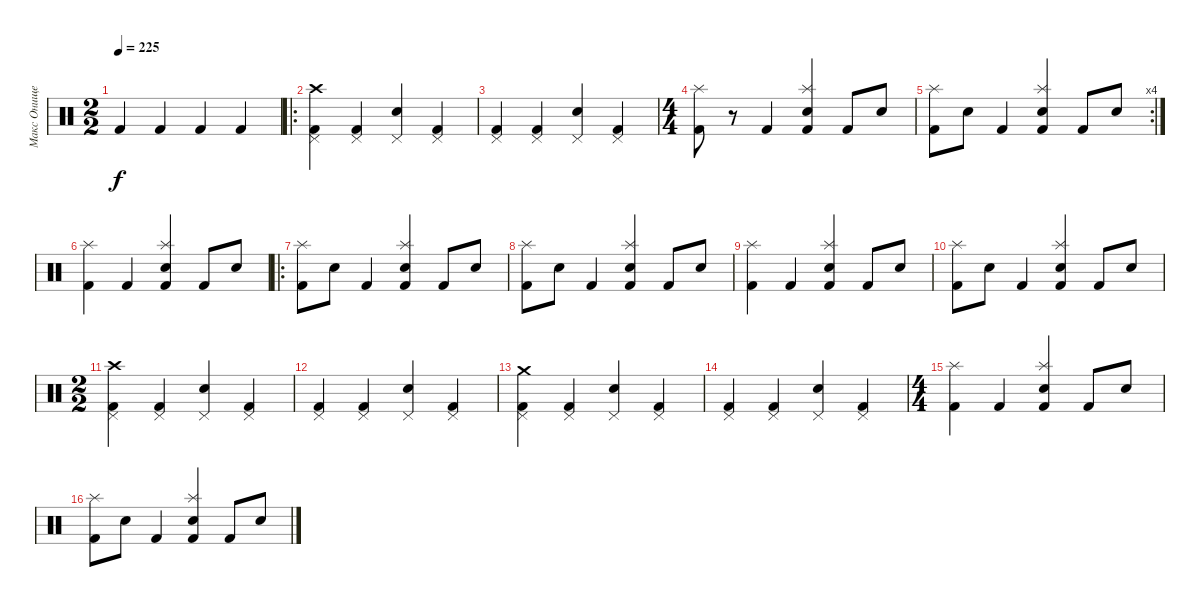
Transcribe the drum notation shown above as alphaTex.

\track ("Макс Онищенко" "Макс Онище") {instrument percussion}
\staff {score}
\articulation defaults
\ts (2 2)
\tempo 225
\clef neutral
\ks c "Kick (hit) 2".4{dy f} "Kick (hit) 2".4 "Kick (hit) 2".4 "Kick (hit) 2".4
|
\ro
("Pedal Hi-Hat (hit)" "Kick (hit) 2" "Crash high (hit)").4 ("Pedal Hi-Hat (hit)" "Kick (hit) 2").4 ("Pedal Hi-Hat (hit)" "Snare (hit) 2").4 ("Pedal Hi-Hat (hit)" "Kick (hit) 2").4 |
("Pedal Hi-Hat (hit)" "Kick (hit) 2").4 ("Pedal Hi-Hat (hit)" "Kick (hit) 2").4 ("Pedal Hi-Hat (hit)" "Snare (hit) 2").4 ("Pedal Hi-Hat (hit)" "Kick (hit) 2").4 |
\ts (4 4)
("Splash (hit)" "Kick (hit) 2").8 r.8 "Kick (hit) 2".4 ("Splash (hit)" "Kick (hit) 2" "Electric Snare (hit)").4 "Kick (hit) 2".8 "Electric Snare (hit)".8 |
\rc 4
("Splash (hit)" "Kick (hit) 2").8 "Electric Snare (hit)".8 "Kick (hit) 2".4 ("Splash (hit)" "Kick (hit) 2" "Electric Snare (hit)").4 "Kick (hit) 2".8 "Electric Snare (hit)".8 |
("Splash (hit)" "Kick (hit) 2").4 "Kick (hit) 2".4 ("Splash (hit)" "Kick (hit) 2" "Electric Snare (hit)").4 "Kick (hit) 2".8 "Electric Snare (hit)".8 |
\ro
("Splash (hit)" "Kick (hit) 2").8 "Electric Snare (hit)".8 "Kick (hit) 2".4 ("Splash (hit)" "Kick (hit) 2" "Electric Snare (hit)").4 "Kick (hit) 2".8 "Electric Snare (hit)".8 |
("Splash (hit)" "Kick (hit) 2").8 "Electric Snare (hit)".8 "Kick (hit) 2".4 ("Splash (hit)" "Kick (hit) 2" "Electric Snare (hit)").4 "Kick (hit) 2".8 "Electric Snare (hit)".8 |
("Splash (hit)" "Kick (hit) 2").4 "Kick (hit) 2".4 ("Splash (hit)" "Kick (hit) 2" "Electric Snare (hit)").4 "Kick (hit) 2".8 "Electric Snare (hit)".8 |
("Splash (hit)" "Kick (hit) 2").8 "Electric Snare (hit)".8 "Kick (hit) 2".4 ("Splash (hit)" "Kick (hit) 2" "Electric Snare (hit)").4 "Kick (hit) 2".8 "Electric Snare (hit)".8 |
\ts (2 2)
("Pedal Hi-Hat (hit)" "Kick (hit) 2" "Crash high (hit)").4 ("Pedal Hi-Hat (hit)" "Kick (hit) 2").4 ("Pedal Hi-Hat (hit)" "Snare (hit) 2").4 ("Pedal Hi-Hat (hit)" "Kick (hit) 2").4 |
("Pedal Hi-Hat (hit)" "Kick (hit) 2").4 ("Pedal Hi-Hat (hit)" "Kick (hit) 2").4 ("Pedal Hi-Hat (hit)" "Snare (hit) 2").4 ("Pedal Hi-Hat (hit)" "Kick (hit) 2").4 |
("Pedal Hi-Hat (hit)" "Kick (hit) 2" "Crash medium (hit)").4 ("Pedal Hi-Hat (hit)" "Kick (hit) 2").4 ("Pedal Hi-Hat (hit)" "Snare (hit) 2").4 ("Pedal Hi-Hat (hit)" "Kick (hit) 2").4 |
("Pedal Hi-Hat (hit)" "Kick (hit) 2").4 ("Pedal Hi-Hat (hit)" "Kick (hit) 2").4 ("Pedal Hi-Hat (hit)" "Snare (hit) 2").4 ("Pedal Hi-Hat (hit)" "Kick (hit) 2").4 |
\ts (4 4)
("Splash (hit)" "Kick (hit) 2").4 "Kick (hit) 2".4 ("Splash (hit)" "Kick (hit) 2" "Electric Snare (hit)").4 "Kick (hit) 2".8 "Electric Snare (hit)".8 |
("Splash (hit)" "Kick (hit) 2").8 "Electric Snare (hit)".8 "Kick (hit) 2".4 ("Splash (hit)" "Kick (hit) 2" "Electric Snare (hit)").4 "Kick (hit) 2".8 "Electric Snare (hit)".8
